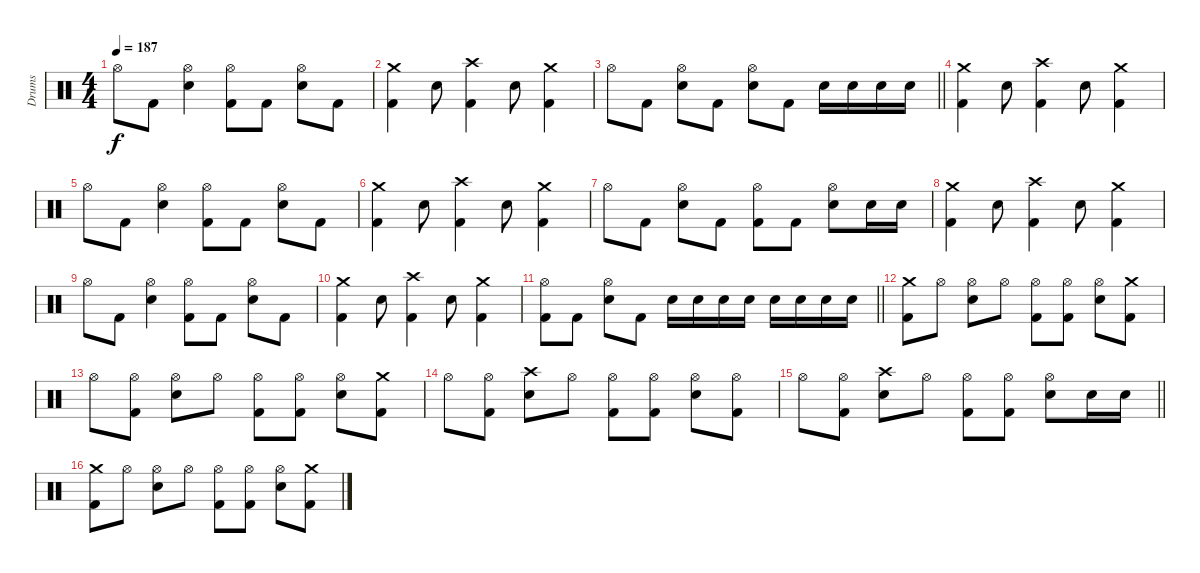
\track ("Drums" "Drums") {instrument percussion}
\staff {score}
\articulation defaults
\ts (4 4)
\tempo 187
\clef neutral
\ks c "Hi-Hat (open)".8{dy f} "Kick (hit) 2".8
("Hi-Hat (open)" "Electric Snare (hit)").4 ("Hi-Hat (open)" "Kick (hit) 2").8 "Kick (hit) 2".8 ("Hi-Hat (open)" "Electric Snare (hit)").8 "Kick (hit) 2".8 |
("Crash medium (hit)" "Kick (hit) 2").4 "Electric Snare (hit)".8 ("Crash high (hit)" "Kick (hit) 2").4 "Electric Snare (hit)".8 ("Crash medium (hit)" "Kick (hit) 2").4 |
\barLineRight lightlight "Hi-Hat (open)".8 "Kick (hit) 2".8
("Hi-Hat (open)" "Electric Snare (hit)").8 "Kick (hit) 2".8 ("Hi-Hat (open)" "Electric Snare (hit)").8 "Kick (hit) 2".8 "Electric Snare (hit)".16 "Electric Snare (hit)".16 "Electric Snare (hit)".16 "Electric Snare (hit)".16 |
("Crash medium (hit)" "Kick (hit) 2").4 "Electric Snare (hit)".8 ("Crash high (hit)" "Kick (hit) 2").4 "Electric Snare (hit)".8 ("Crash medium (hit)" "Kick (hit) 2").4 |
"Hi-Hat (open)".8 "Kick (hit) 2".8 ("Hi-Hat (open)" "Electric Snare (hit)").4 ("Hi-Hat (open)" "Kick (hit) 2").8 "Kick (hit) 2".8 ("Hi-Hat (open)" "Electric Snare (hit)").8 "Kick (hit) 2".8 |
("Crash medium (hit)" "Kick (hit) 2").4 "Electric Snare (hit)".8 ("Crash high (hit)" "Kick (hit) 2").4 "Electric Snare (hit)".8 ("Crash medium (hit)" "Kick (hit) 2").4 |
"Hi-Hat (open)".8 "Kick (hit) 2".8 ("Hi-Hat (open)" "Electric Snare (hit)").8 "Kick (hit) 2".8 ("Hi-Hat (open)" "Kick (hit) 2").8 "Kick (hit) 2".8 ("Hi-Hat (open)" "Electric Snare (hit)").8 "Electric Snare (hit)".16 "Electric Snare (hit)".16 |
("Crash medium (hit)" "Kick (hit) 2").4 "Electric Snare (hit)".8 ("Crash high (hit)" "Kick (hit) 2").4 "Electric Snare (hit)".8 ("Crash medium (hit)" "Kick (hit) 2").4 |
"Hi-Hat (open)".8 "Kick (hit) 2".8 ("Hi-Hat (open)" "Electric Snare (hit)").4 ("Hi-Hat (open)" "Kick (hit) 2").8 "Kick (hit) 2".8 ("Hi-Hat (open)" "Electric Snare (hit)").8 "Kick (hit) 2".8 |
("Crash medium (hit)" "Kick (hit) 2").4 "Electric Snare (hit)".8 ("Crash high (hit)" "Kick (hit) 2").4 "Electric Snare (hit)".8 ("Crash medium (hit)" "Kick (hit) 2").4 |
\barLineRight lightlight
("Hi-Hat (open)" "Kick (hit) 2").8 "Kick (hit) 2".8 ("Hi-Hat (open)" "Electric Snare (hit)").8 "Kick (hit) 2".8 "Electric Snare (hit)".16 "Electric Snare (hit)".16 "Electric Snare (hit)".16 "Electric Snare (hit)".16 "Electric Snare (hit)".16 "Electric Snare (hit)".16 "Electric Snare (hit)".16 "Electric Snare (hit)".16 |
("Crash medium (hit)" "Kick (hit) 2").8 "Hi-Hat (open)".8 ("Hi-Hat (open)" "Electric Snare (hit)").8 "Hi-Hat (open)".8 ("Hi-Hat (open)" "Kick (hit) 2").8 ("Hi-Hat (open)" "Kick (hit) 2").8 ("Hi-Hat (open)" "Electric Snare (hit)").8 ("Crash medium (hit)" "Kick (hit) 2").8 |
"Hi-Hat (open)".8 ("Hi-Hat (open)" "Kick (hit) 2").8 ("Hi-Hat (open)" "Electric Snare (hit)").8 "Hi-Hat (open)".8 ("Hi-Hat (open)" "Kick (hit) 2").8 ("Hi-Hat (open)" "Kick (hit) 2").8 ("Hi-Hat (open)" "Electric Snare (hit)").8 ("Crash medium (hit)" "Kick (hit) 2").8 |
"Hi-Hat (open)".8 ("Hi-Hat (open)" "Kick (hit) 2").8 ("Crash high (hit)" "Electric Snare (hit)").8 "Hi-Hat (open)".8 ("Hi-Hat (open)" "Kick (hit) 2").8 ("Hi-Hat (open)" "Kick (hit) 2").8 ("Hi-Hat (open)" "Electric Snare (hit)").8 ("Hi-Hat (open)" "Kick (hit) 2").8 |
\barLineRight lightlight "Hi-Hat (open)".8
("Hi-Hat (open)" "Kick (hit) 2").8 ("Crash high (hit)" "Electric Snare (hit)").8 "Hi-Hat (open)".8 ("Hi-Hat (open)" "Kick (hit) 2").8 ("Hi-Hat (open)" "Kick (hit) 2").8 ("Hi-Hat (open)" "Electric Snare (hit)").8 "Electric Snare (hit)".16 "Electric Snare (hit)".16 |
("Crash medium (hit)" "Kick (hit) 2").8 "Hi-Hat (open)".8 ("Hi-Hat (open)" "Electric Snare (hit)").8 "Hi-Hat (open)".8 ("Hi-Hat (open)" "Kick (hit) 2").8 ("Hi-Hat (open)" "Kick (hit) 2").8 ("Hi-Hat (open)" "Electric Snare (hit)").8 ("Crash medium (hit)" "Kick (hit) 2").8
